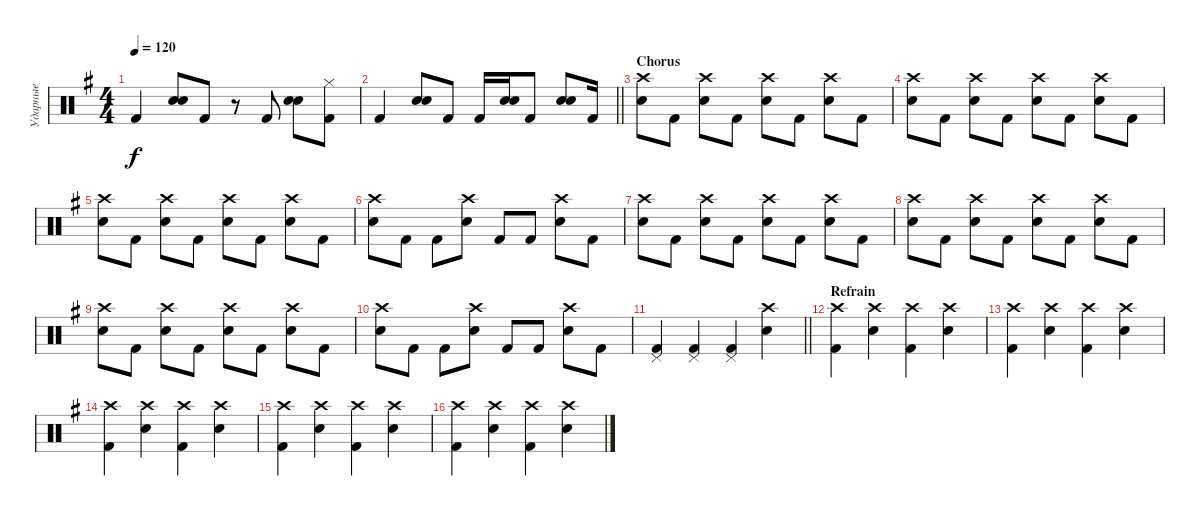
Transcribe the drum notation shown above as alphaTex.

\track ("Ударные" "Ударные") {instrument percussion}
\staff {score}
\articulation defaults
\ts (4 4)
\tempo 120
\clef neutral
\ks g "Kick (hit) 2".4{dy f}
("Snare (hit) 2" "Electric Snare (hit)").8 "Kick (hit) 2".8 r.8 "Kick (hit) 2".8 ("Snare (hit) 2" "Electric Snare (hit)").8 ("Kick (hit) 2" "Hi-Hat (closed)").8 |
\barLineRight lightlight "Kick (hit) 2".4
("Snare (hit) 2" "Electric Snare (hit)").8 "Kick (hit) 2".8 "Kick (hit) 2".16 ("Snare (hit) 2" "Electric Snare (hit)").16 "Kick (hit) 2".8 ("Snare (hit) 2" "Electric Snare (hit)").8 "Kick (hit) 2".16 |
\section ("" "Chorus")
("Snare (hit) 2" "Crash high (hit)").8 "Kick (hit) 2".8 ("Snare (hit) 2" "Crash high (hit)").8 "Kick (hit) 2".8 ("Snare (hit) 2" "Crash high (hit)").8 "Kick (hit) 2".8 ("Snare (hit) 2" "Crash high (hit)").8 "Kick (hit) 2".8 |
("Snare (hit) 2" "Crash high (hit)").8 "Kick (hit) 2".8 ("Snare (hit) 2" "Crash high (hit)").8 "Kick (hit) 2".8 ("Snare (hit) 2" "Crash high (hit)").8 "Kick (hit) 2".8 ("Snare (hit) 2" "Crash high (hit)").8 "Kick (hit) 2".8 |
("Snare (hit) 2" "Crash high (hit)").8 "Kick (hit) 2".8 ("Snare (hit) 2" "Crash high (hit)").8 "Kick (hit) 2".8 ("Snare (hit) 2" "Crash high (hit)").8 "Kick (hit) 2".8 ("Snare (hit) 2" "Crash high (hit)").8 "Kick (hit) 2".8 |
("Snare (hit) 2" "Crash high (hit)").8 "Kick (hit) 2".8 "Kick (hit) 2".8 ("Snare (hit) 2" "Crash high (hit)").8 "Kick (hit) 2".8 "Kick (hit) 2".8 ("Snare (hit) 2" "Crash high (hit)").8 "Kick (hit) 2".8 |
("Snare (hit) 2" "Crash high (hit)").8 "Kick (hit) 2".8 ("Snare (hit) 2" "Crash high (hit)").8 "Kick (hit) 2".8 ("Snare (hit) 2" "Crash high (hit)").8 "Kick (hit) 2".8 ("Snare (hit) 2" "Crash high (hit)").8 "Kick (hit) 2".8 |
("Snare (hit) 2" "Crash high (hit)").8 "Kick (hit) 2".8 ("Snare (hit) 2" "Crash high (hit)").8 "Kick (hit) 2".8 ("Snare (hit) 2" "Crash high (hit)").8 "Kick (hit) 2".8 ("Snare (hit) 2" "Crash high (hit)").8 "Kick (hit) 2".8 |
("Snare (hit) 2" "Crash high (hit)").8 "Kick (hit) 2".8 ("Snare (hit) 2" "Crash high (hit)").8 "Kick (hit) 2".8 ("Snare (hit) 2" "Crash high (hit)").8 "Kick (hit) 2".8 ("Snare (hit) 2" "Crash high (hit)").8 "Kick (hit) 2".8 |
("Snare (hit) 2" "Crash high (hit)").8 "Kick (hit) 2".8 "Kick (hit) 2".8 ("Snare (hit) 2" "Crash high (hit)").8 "Kick (hit) 2".8 "Kick (hit) 2".8 ("Snare (hit) 2" "Crash high (hit)").8 "Kick (hit) 2".8 |
\barLineRight lightlight
("Kick (hit) 2" "Pedal Hi-Hat (hit)").4 ("Kick (hit) 2" "Pedal Hi-Hat (hit)").4 ("Kick (hit) 2" "Pedal Hi-Hat (hit)").4 ("Snare (hit) 2" "Crash high (hit)").4 |
\section ("" "Refrain")
("Kick (hit) 2" "Crash high (hit)").4 ("Snare (hit) 2" "Crash high (hit)").4 ("Kick (hit) 2" "Crash high (hit)").4 ("Snare (hit) 2" "Crash high (hit)").4 |
("Kick (hit) 2" "Crash high (hit)").4 ("Snare (hit) 2" "Crash high (hit)").4 ("Kick (hit) 2" "Crash high (hit)").4 ("Snare (hit) 2" "Crash high (hit)").4 |
("Kick (hit) 2" "Crash high (hit)").4 ("Snare (hit) 2" "Crash high (hit)").4 ("Kick (hit) 2" "Crash high (hit)").4 ("Snare (hit) 2" "Crash high (hit)").4 |
("Kick (hit) 2" "Crash high (hit)").4 ("Snare (hit) 2" "Crash high (hit)").4 ("Kick (hit) 2" "Crash high (hit)").4 ("Snare (hit) 2" "Crash high (hit)").4 |
("Kick (hit) 2" "Crash high (hit)").4 ("Snare (hit) 2" "Crash high (hit)").4 ("Kick (hit) 2" "Crash high (hit)").4 ("Snare (hit) 2" "Crash high (hit)").4
